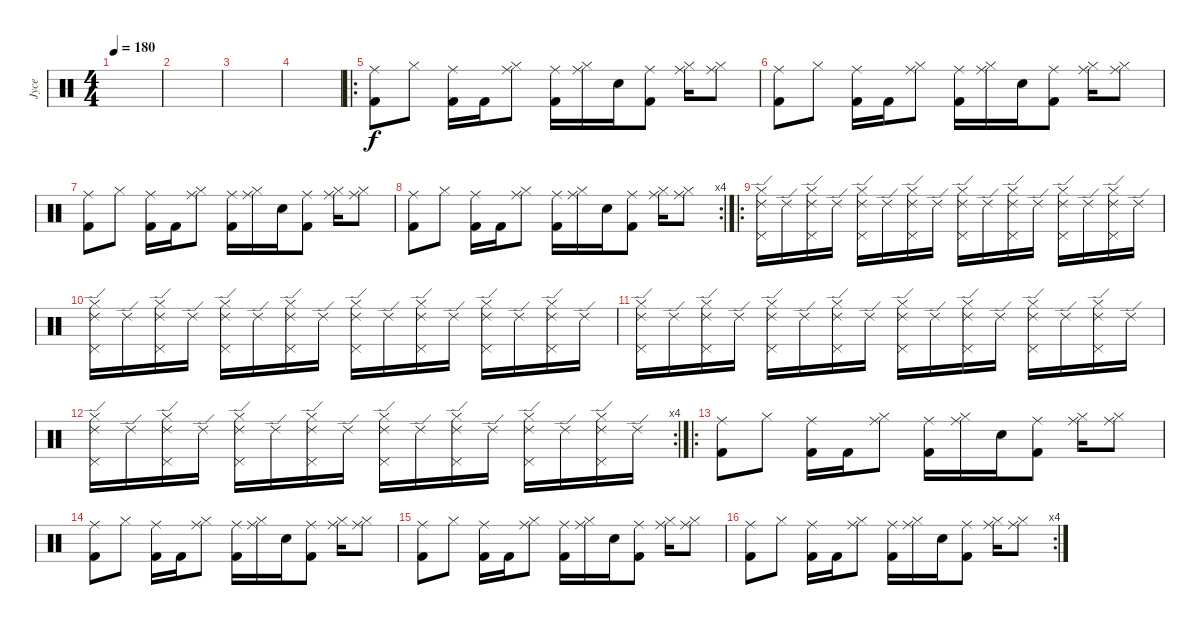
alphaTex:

\track ("Jyce" "Jyce") {instrument percussion}
\staff {score}
\articulation defaults
\ts (4 4)
\tempo 180
\clef neutral
\ks c
|
|
|
|
\ro
("Ride (middle)" "Kick (hit) 2").8 "Hi-Hat (closed)".8 ("Ride (middle)" "Kick (hit) 2").16 "Kick (hit) 2".16 ("Ride (middle)" "Hi-Hat (closed)").8 ("Ride (middle)" "Kick (hit) 2").16 ("Ride (middle)" "Hi-Hat (closed)").16 "Snare (hit) 2".16 ("Ride (middle)" "Kick (hit) 2").8 ("Ride (middle)" "Hi-Hat (closed)").16 ("Ride (middle)" "Hi-Hat (closed)").8 |
("Ride (middle)" "Kick (hit) 2").8 "Hi-Hat (closed)".8 ("Ride (middle)" "Kick (hit) 2").16 "Kick (hit) 2".16 ("Ride (middle)" "Hi-Hat (closed)").8 ("Ride (middle)" "Kick (hit) 2").16 ("Ride (middle)" "Hi-Hat (closed)").16 "Snare (hit) 2".16 ("Ride (middle)" "Kick (hit) 2").8 ("Ride (middle)" "Hi-Hat (closed)").16 ("Ride (middle)" "Hi-Hat (closed)").8 |
("Ride (middle)" "Kick (hit) 2").8 "Hi-Hat (closed)".8 ("Ride (middle)" "Kick (hit) 2").16 "Kick (hit) 2".16 ("Ride (middle)" "Hi-Hat (closed)").8 ("Ride (middle)" "Kick (hit) 2").16 ("Ride (middle)" "Hi-Hat (closed)").16 "Snare (hit) 2".16 ("Ride (middle)" "Kick (hit) 2").8 ("Ride (middle)" "Hi-Hat (closed)").16 ("Ride (middle)" "Hi-Hat (closed)").8 |
\rc 4
("Ride (middle)" "Kick (hit) 2").8 "Hi-Hat (closed)".8 ("Ride (middle)" "Kick (hit) 2").16 "Kick (hit) 2".16 ("Ride (middle)" "Hi-Hat (closed)").8 ("Ride (middle)" "Kick (hit) 2").16 ("Ride (middle)" "Hi-Hat (closed)").16 "Snare (hit) 2".16 ("Ride (middle)" "Kick (hit) 2").8 ("Ride (middle)" "Hi-Hat (closed)").16 ("Ride (middle)" "Hi-Hat (closed)").8 |
\ro
("Pedal Hi-Hat (hit)" "Hi-Hat (closed)" "Ride (edge) 2").16 "Ride (edge) 2".16 ("Pedal Hi-Hat (hit)" "Hi-Hat (closed)" "Ride (edge) 2").16 "Ride (edge) 2".16 ("Pedal Hi-Hat (hit)" "Hi-Hat (closed)" "Ride (edge) 2").16 "Ride (edge) 2".16 ("Pedal Hi-Hat (hit)" "Hi-Hat (closed)" "Ride (edge) 2").16 "Ride (edge) 2".16 ("Pedal Hi-Hat (hit)" "Hi-Hat (closed)" "Ride (edge) 2").16 "Ride (edge) 2".16 ("Pedal Hi-Hat (hit)" "Hi-Hat (closed)" "Ride (edge) 2").16 "Ride (edge) 2".16 ("Pedal Hi-Hat (hit)" "Hi-Hat (closed)" "Ride (edge) 2").16 "Ride (edge) 2".16 ("Pedal Hi-Hat (hit)" "Hi-Hat (closed)" "Ride (edge) 2").16 "Ride (edge) 2".16 |
("Pedal Hi-Hat (hit)" "Hi-Hat (closed)" "Ride (edge) 2").16 "Ride (edge) 2".16 ("Pedal Hi-Hat (hit)" "Hi-Hat (closed)" "Ride (edge) 2").16 "Ride (edge) 2".16 ("Pedal Hi-Hat (hit)" "Hi-Hat (closed)" "Ride (edge) 2").16 "Ride (edge) 2".16 ("Pedal Hi-Hat (hit)" "Hi-Hat (closed)" "Ride (edge) 2").16 "Ride (edge) 2".16 ("Pedal Hi-Hat (hit)" "Hi-Hat (closed)" "Ride (edge) 2").16 "Ride (edge) 2".16 ("Pedal Hi-Hat (hit)" "Hi-Hat (closed)" "Ride (edge) 2").16 "Ride (edge) 2".16 ("Pedal Hi-Hat (hit)" "Hi-Hat (closed)" "Ride (edge) 2").16 "Ride (edge) 2".16 ("Pedal Hi-Hat (hit)" "Hi-Hat (closed)" "Ride (edge) 2").16 "Ride (edge) 2".16 |
("Pedal Hi-Hat (hit)" "Hi-Hat (closed)" "Ride (edge) 2").16 "Ride (edge) 2".16 ("Pedal Hi-Hat (hit)" "Hi-Hat (closed)" "Ride (edge) 2").16 "Ride (edge) 2".16 ("Pedal Hi-Hat (hit)" "Hi-Hat (closed)" "Ride (edge) 2").16 "Ride (edge) 2".16 ("Pedal Hi-Hat (hit)" "Hi-Hat (closed)" "Ride (edge) 2").16 "Ride (edge) 2".16 ("Pedal Hi-Hat (hit)" "Hi-Hat (closed)" "Ride (edge) 2").16 "Ride (edge) 2".16 ("Pedal Hi-Hat (hit)" "Hi-Hat (closed)" "Ride (edge) 2").16 "Ride (edge) 2".16 ("Pedal Hi-Hat (hit)" "Hi-Hat (closed)" "Ride (edge) 2").16 "Ride (edge) 2".16 ("Pedal Hi-Hat (hit)" "Hi-Hat (closed)" "Ride (edge) 2").16 "Ride (edge) 2".16 |
\rc 4
("Pedal Hi-Hat (hit)" "Hi-Hat (closed)" "Ride (edge) 2").16 "Ride (edge) 2".16 ("Pedal Hi-Hat (hit)" "Hi-Hat (closed)" "Ride (edge) 2").16 "Ride (edge) 2".16 ("Pedal Hi-Hat (hit)" "Hi-Hat (closed)" "Ride (edge) 2").16 "Ride (edge) 2".16 ("Pedal Hi-Hat (hit)" "Hi-Hat (closed)" "Ride (edge) 2").16 "Ride (edge) 2".16 ("Pedal Hi-Hat (hit)" "Hi-Hat (closed)" "Ride (edge) 2").16 "Ride (edge) 2".16 ("Pedal Hi-Hat (hit)" "Hi-Hat (closed)" "Ride (edge) 2").16 "Ride (edge) 2".16 ("Pedal Hi-Hat (hit)" "Hi-Hat (closed)" "Ride (edge) 2").16 "Ride (edge) 2".16 ("Pedal Hi-Hat (hit)" "Hi-Hat (closed)" "Ride (edge) 2").16 "Ride (edge) 2".16 |
\ro
("Ride (middle)" "Kick (hit) 2").8 "Hi-Hat (closed)".8 ("Ride (middle)" "Kick (hit) 2").16 "Kick (hit) 2".16 ("Ride (middle)" "Hi-Hat (closed)").8 ("Ride (middle)" "Kick (hit) 2").16 ("Ride (middle)" "Hi-Hat (closed)").16 "Snare (hit) 2".16 ("Ride (middle)" "Kick (hit) 2").8 ("Ride (middle)" "Hi-Hat (closed)").16 ("Ride (middle)" "Hi-Hat (closed)").8 |
("Ride (middle)" "Kick (hit) 2").8 "Hi-Hat (closed)".8 ("Ride (middle)" "Kick (hit) 2").16 "Kick (hit) 2".16 ("Ride (middle)" "Hi-Hat (closed)").8 ("Ride (middle)" "Kick (hit) 2").16 ("Ride (middle)" "Hi-Hat (closed)").16 "Snare (hit) 2".16 ("Ride (middle)" "Kick (hit) 2").8 ("Ride (middle)" "Hi-Hat (closed)").16 ("Ride (middle)" "Hi-Hat (closed)").8 |
("Ride (middle)" "Kick (hit) 2").8 "Hi-Hat (closed)".8 ("Ride (middle)" "Kick (hit) 2").16 "Kick (hit) 2".16 ("Ride (middle)" "Hi-Hat (closed)").8 ("Ride (middle)" "Kick (hit) 2").16 ("Ride (middle)" "Hi-Hat (closed)").16 "Snare (hit) 2".16 ("Ride (middle)" "Kick (hit) 2").8 ("Ride (middle)" "Hi-Hat (closed)").16 ("Ride (middle)" "Hi-Hat (closed)").8 |
\rc 4
("Ride (middle)" "Kick (hit) 2").8 "Hi-Hat (closed)".8 ("Ride (middle)" "Kick (hit) 2").16 "Kick (hit) 2".16 ("Ride (middle)" "Hi-Hat (closed)").8 ("Ride (middle)" "Kick (hit) 2").16 ("Ride (middle)" "Hi-Hat (closed)").16 "Snare (hit) 2".16 ("Ride (middle)" "Kick (hit) 2").8 ("Ride (middle)" "Hi-Hat (closed)").16 ("Ride (middle)" "Hi-Hat (closed)").8
